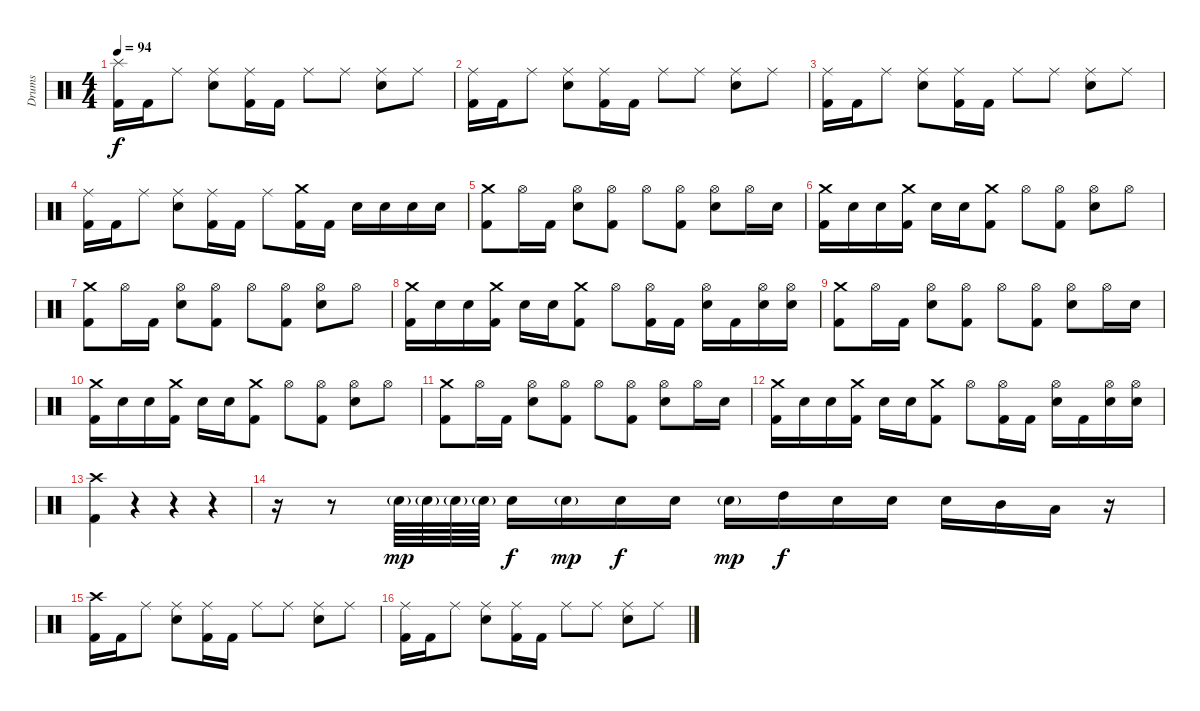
\track ("Drums" "Drums") {instrument percussion}
\staff {score}
\articulation defaults
\ts (4 4)
\tempo 94
\clef neutral
\ks c
("Splash (hit)" "Kick (hit) 2").16{dy f} "Kick (hit) 2".16 "Ride (middle)".8 ("Ride (middle)" "Electric Snare (hit)").8 ("Ride (middle)" "Kick (hit) 2").16 "Kick (hit) 2".16 "Ride (middle)".8 "Ride (middle)".8 ("Ride (middle)" "Electric Snare (hit)").8 "Ride (middle)".8 |
("Ride (middle)" "Kick (hit) 2").16 "Kick (hit) 2".16 "Ride (middle)".8 ("Ride (middle)" "Electric Snare (hit)").8 ("Ride (middle)" "Kick (hit) 2").16 "Kick (hit) 2".16 "Ride (middle)".8 "Ride (middle)".8 ("Ride (middle)" "Electric Snare (hit)").8 "Ride (middle)".8 |
("Ride (middle)" "Kick (hit) 2").16 "Kick (hit) 2".16 "Ride (middle)".8 ("Ride (middle)" "Electric Snare (hit)").8 ("Ride (middle)" "Kick (hit) 2").16 "Kick (hit) 2".16 "Ride (middle)".8 "Ride (middle)".8 ("Ride (middle)" "Electric Snare (hit)").8 "Ride (middle)".8 |
("Ride (middle)" "Kick (hit) 2").16 "Kick (hit) 2".16 "Ride (middle)".8 ("Ride (middle)" "Electric Snare (hit)").8 ("Ride (middle)" "Kick (hit) 2").16 "Kick (hit) 2".16 "Ride (middle)".8 ("Crash medium (hit)" "Kick (hit) 2").16 "Kick (hit) 2".16 "Electric Snare (hit)".16 "Electric Snare (hit)".16 "Electric Snare (hit)".16 "Electric Snare (hit)".16 |
("Crash medium (hit)" "Kick (hit) 2").8 "Hi-Hat (open)".16 "Kick (hit) 2".16 ("Hi-Hat (open)" "Electric Snare (hit)").8 ("Hi-Hat (open)" "Kick (hit) 2").8 "Hi-Hat (open)".8 ("Hi-Hat (open)" "Kick (hit) 2").8 ("Hi-Hat (open)" "Electric Snare (hit)").8 "Hi-Hat (open)".16 "Electric Snare (hit)".16 |
("Crash medium (hit)" "Kick (hit) 2").16 "Electric Snare (hit)".16 "Electric Snare (hit)".16 ("Crash medium (hit)" "Kick (hit) 2").16 "Electric Snare (hit)".16 "Electric Snare (hit)".16 ("Crash medium (hit)" "Kick (hit) 2").8 "Hi-Hat (open)".8 ("Hi-Hat (open)" "Kick (hit) 2").8 ("Hi-Hat (open)" "Electric Snare (hit)").8 "Hi-Hat (open)".8 |
("Crash medium (hit)" "Kick (hit) 2").8 "Hi-Hat (open)".16 "Kick (hit) 2".16 ("Hi-Hat (open)" "Electric Snare (hit)").8 ("Hi-Hat (open)" "Kick (hit) 2").8 "Hi-Hat (open)".8 ("Hi-Hat (open)" "Kick (hit) 2").8 ("Hi-Hat (open)" "Electric Snare (hit)").8 "Hi-Hat (open)".8 |
("Crash medium (hit)" "Kick (hit) 2").16 "Electric Snare (hit)".16 "Electric Snare (hit)".16 ("Crash medium (hit)" "Kick (hit) 2").16 "Electric Snare (hit)".16 "Electric Snare (hit)".16 ("Crash medium (hit)" "Kick (hit) 2").8 "Hi-Hat (open)".8 ("Hi-Hat (open)" "Kick (hit) 2").16 "Kick (hit) 2".16 ("Hi-Hat (open)" "Electric Snare (hit)").16 "Kick (hit) 2".16 ("Hi-Hat (open)" "Electric Snare (hit)").16 ("Hi-Hat (open)" "Electric Snare (hit)").16 |
("Crash medium (hit)" "Kick (hit) 2").8 "Hi-Hat (open)".16 "Kick (hit) 2".16 ("Hi-Hat (open)" "Electric Snare (hit)").8 ("Hi-Hat (open)" "Kick (hit) 2").8 "Hi-Hat (open)".8 ("Hi-Hat (open)" "Kick (hit) 2").8 ("Hi-Hat (open)" "Electric Snare (hit)").8 "Hi-Hat (open)".16 "Electric Snare (hit)".16 |
("Crash medium (hit)" "Kick (hit) 2").16 "Electric Snare (hit)".16 "Electric Snare (hit)".16 ("Crash medium (hit)" "Kick (hit) 2").16 "Electric Snare (hit)".16 "Electric Snare (hit)".16 ("Crash medium (hit)" "Kick (hit) 2").8 "Hi-Hat (open)".8 ("Hi-Hat (open)" "Kick (hit) 2").8 ("Hi-Hat (open)" "Electric Snare (hit)").8 "Hi-Hat (open)".8 |
("Crash medium (hit)" "Kick (hit) 2").8 "Hi-Hat (open)".16 "Kick (hit) 2".16 ("Hi-Hat (open)" "Electric Snare (hit)").8 ("Hi-Hat (open)" "Kick (hit) 2").8 "Hi-Hat (open)".8 ("Hi-Hat (open)" "Kick (hit) 2").8 ("Hi-Hat (open)" "Electric Snare (hit)").8 "Hi-Hat (open)".16 "Electric Snare (hit)".16 |
("Crash medium (hit)" "Kick (hit) 2").16 "Electric Snare (hit)".16 "Electric Snare (hit)".16 ("Crash medium (hit)" "Kick (hit) 2").16 "Electric Snare (hit)".16 "Electric Snare (hit)".16 ("Crash medium (hit)" "Kick (hit) 2").8 "Hi-Hat (open)".8 ("Hi-Hat (open)" "Kick (hit) 2").16 "Kick (hit) 2".16 ("Hi-Hat (open)" "Electric Snare (hit)").16 "Kick (hit) 2".16 ("Hi-Hat (open)" "Electric Snare (hit)").16 ("Hi-Hat (open)" "Electric Snare (hit)").16 |
("Crash high (hit)" "Kick (hit) 2").4 r.4 r.4 r.4 |
r.16 r.8 "Electric Snare (hit)"{g}.64{dy mp} "Electric Snare (hit)"{g}.64 "Electric Snare (hit)"{g}.64 "Electric Snare (hit)"{g}.64 "Electric Snare (hit)".16{dy f} "Electric Snare (hit)"{g}.16{dy mp} "Electric Snare (hit)".16{dy f} "Electric Snare (hit)".16 "Electric Snare (hit)"{g}.16{dy mp} "High Tom (hit)".16{dy f} "Electric Snare (hit)".16 "Electric Snare (hit)".16 "Electric Snare (hit)".16 "Mid Tom (hit)".16 "Low Tom (hit)".16 r.16 |
("Crash high (hit)" "Kick (hit) 2").16 "Kick (hit) 2".16 "Ride (middle)".8 ("Ride (middle)" "Electric Snare (hit)").8 ("Ride (middle)" "Kick (hit) 2").16 "Kick (hit) 2".16 "Ride (middle)".8 "Ride (middle)".8 ("Ride (middle)" "Electric Snare (hit)").8 "Ride (middle)".8 |
("Ride (middle)" "Kick (hit) 2").16 "Kick (hit) 2".16 "Ride (middle)".8 ("Ride (middle)" "Electric Snare (hit)").8 ("Ride (middle)" "Kick (hit) 2").16 "Kick (hit) 2".16 "Ride (middle)".8 "Ride (middle)".8 ("Ride (middle)" "Electric Snare (hit)").8 "Ride (middle)".8
